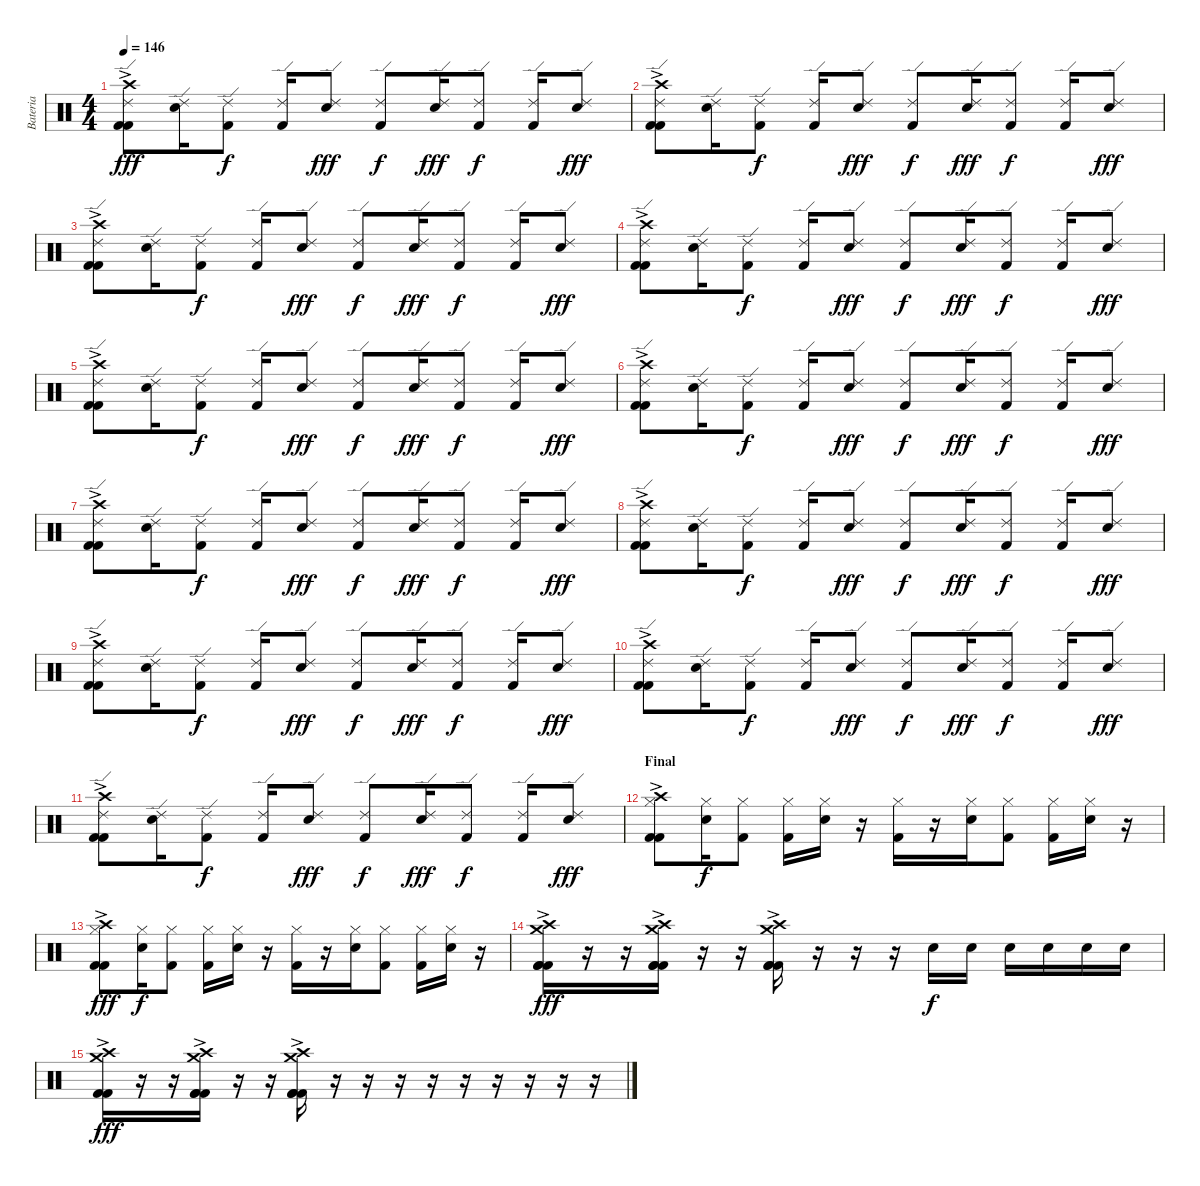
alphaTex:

\track ("Bateria" "Bateria") {instrument percussion}
\staff {score}
\articulation defaults
\ts (4 4)
\tempo 146
\clef neutral
\ks c
("Crash high (hit)"{ac} "Ride (edge) 2" "Kick (hit) 2" "Kick (hit) 2").8{dy fff} ("Ride (edge) 2" "Electric Snare (hit)").16 ("Ride (edge) 2" "Kick (hit) 2").8{dy f} ("Ride (edge) 2" "Kick (hit) 2").16 ("Ride (edge) 2" "Electric Snare (hit)").8{dy fff} ("Ride (edge) 2" "Kick (hit) 2").8{dy f} ("Ride (edge) 2" "Electric Snare (hit)").16{dy fff} ("Ride (edge) 2" "Kick (hit) 2").8{dy f} ("Ride (edge) 2" "Kick (hit) 2").16 ("Ride (edge) 2" "Electric Snare (hit)").8{dy fff} |
("Crash high (hit)"{ac} "Ride (edge) 2" "Kick (hit) 2" "Kick (hit) 2").8 ("Ride (edge) 2" "Electric Snare (hit)").16 ("Ride (edge) 2" "Kick (hit) 2").8{dy f} ("Ride (edge) 2" "Kick (hit) 2").16 ("Ride (edge) 2" "Electric Snare (hit)").8{dy fff} ("Ride (edge) 2" "Kick (hit) 2").8{dy f} ("Ride (edge) 2" "Electric Snare (hit)").16{dy fff} ("Ride (edge) 2" "Kick (hit) 2").8{dy f} ("Ride (edge) 2" "Kick (hit) 2").16 ("Ride (edge) 2" "Electric Snare (hit)").8{dy fff} |
("Crash high (hit)"{ac} "Ride (edge) 2" "Kick (hit) 2" "Kick (hit) 2").8 ("Ride (edge) 2" "Electric Snare (hit)").16 ("Ride (edge) 2" "Kick (hit) 2").8{dy f} ("Ride (edge) 2" "Kick (hit) 2").16 ("Ride (edge) 2" "Electric Snare (hit)").8{dy fff} ("Ride (edge) 2" "Kick (hit) 2").8{dy f} ("Ride (edge) 2" "Electric Snare (hit)").16{dy fff} ("Ride (edge) 2" "Kick (hit) 2").8{dy f} ("Ride (edge) 2" "Kick (hit) 2").16 ("Ride (edge) 2" "Electric Snare (hit)").8{dy fff} |
("Crash high (hit)"{ac} "Ride (edge) 2" "Kick (hit) 2" "Kick (hit) 2").8 ("Ride (edge) 2" "Electric Snare (hit)").16 ("Ride (edge) 2" "Kick (hit) 2").8{dy f} ("Ride (edge) 2" "Kick (hit) 2").16 ("Ride (edge) 2" "Electric Snare (hit)").8{dy fff} ("Ride (edge) 2" "Kick (hit) 2").8{dy f} ("Ride (edge) 2" "Electric Snare (hit)").16{dy fff} ("Ride (edge) 2" "Kick (hit) 2").8{dy f} ("Ride (edge) 2" "Kick (hit) 2").16 ("Ride (edge) 2" "Electric Snare (hit)").8{dy fff} |
("Crash high (hit)"{ac} "Ride (edge) 2" "Kick (hit) 2" "Kick (hit) 2").8 ("Ride (edge) 2" "Electric Snare (hit)").16 ("Ride (edge) 2" "Kick (hit) 2").8{dy f} ("Ride (edge) 2" "Kick (hit) 2").16 ("Ride (edge) 2" "Electric Snare (hit)").8{dy fff} ("Ride (edge) 2" "Kick (hit) 2").8{dy f} ("Ride (edge) 2" "Electric Snare (hit)").16{dy fff} ("Ride (edge) 2" "Kick (hit) 2").8{dy f} ("Ride (edge) 2" "Kick (hit) 2").16 ("Ride (edge) 2" "Electric Snare (hit)").8{dy fff} |
("Crash high (hit)"{ac} "Ride (edge) 2" "Kick (hit) 2" "Kick (hit) 2").8 ("Ride (edge) 2" "Electric Snare (hit)").16 ("Ride (edge) 2" "Kick (hit) 2").8{dy f} ("Ride (edge) 2" "Kick (hit) 2").16 ("Ride (edge) 2" "Electric Snare (hit)").8{dy fff} ("Ride (edge) 2" "Kick (hit) 2").8{dy f} ("Ride (edge) 2" "Electric Snare (hit)").16{dy fff} ("Ride (edge) 2" "Kick (hit) 2").8{dy f} ("Ride (edge) 2" "Kick (hit) 2").16 ("Ride (edge) 2" "Electric Snare (hit)").8{dy fff} |
("Crash high (hit)"{ac} "Ride (edge) 2" "Kick (hit) 2" "Kick (hit) 2").8 ("Ride (edge) 2" "Electric Snare (hit)").16 ("Ride (edge) 2" "Kick (hit) 2").8{dy f} ("Ride (edge) 2" "Kick (hit) 2").16 ("Ride (edge) 2" "Electric Snare (hit)").8{dy fff} ("Ride (edge) 2" "Kick (hit) 2").8{dy f} ("Ride (edge) 2" "Electric Snare (hit)").16{dy fff} ("Ride (edge) 2" "Kick (hit) 2").8{dy f} ("Ride (edge) 2" "Kick (hit) 2").16 ("Ride (edge) 2" "Electric Snare (hit)").8{dy fff} |
("Crash high (hit)"{ac} "Ride (edge) 2" "Kick (hit) 2" "Kick (hit) 2").8 ("Ride (edge) 2" "Electric Snare (hit)").16 ("Ride (edge) 2" "Kick (hit) 2").8{dy f} ("Ride (edge) 2" "Kick (hit) 2").16 ("Ride (edge) 2" "Electric Snare (hit)").8{dy fff} ("Ride (edge) 2" "Kick (hit) 2").8{dy f} ("Ride (edge) 2" "Electric Snare (hit)").16{dy fff} ("Ride (edge) 2" "Kick (hit) 2").8{dy f} ("Ride (edge) 2" "Kick (hit) 2").16 ("Ride (edge) 2" "Electric Snare (hit)").8{dy fff} |
("Crash high (hit)"{ac} "Ride (edge) 2" "Kick (hit) 2" "Kick (hit) 2").8 ("Ride (edge) 2" "Electric Snare (hit)").16 ("Ride (edge) 2" "Kick (hit) 2").8{dy f} ("Ride (edge) 2" "Kick (hit) 2").16 ("Ride (edge) 2" "Electric Snare (hit)").8{dy fff} ("Ride (edge) 2" "Kick (hit) 2").8{dy f} ("Ride (edge) 2" "Electric Snare (hit)").16{dy fff} ("Ride (edge) 2" "Kick (hit) 2").8{dy f} ("Ride (edge) 2" "Kick (hit) 2").16 ("Ride (edge) 2" "Electric Snare (hit)").8{dy fff} |
("Crash high (hit)"{ac} "Ride (edge) 2" "Kick (hit) 2" "Kick (hit) 2").8 ("Ride (edge) 2" "Electric Snare (hit)").16 ("Ride (edge) 2" "Kick (hit) 2").8{dy f} ("Ride (edge) 2" "Kick (hit) 2").16 ("Ride (edge) 2" "Electric Snare (hit)").8{dy fff} ("Ride (edge) 2" "Kick (hit) 2").8{dy f} ("Ride (edge) 2" "Electric Snare (hit)").16{dy fff} ("Ride (edge) 2" "Kick (hit) 2").8{dy f} ("Ride (edge) 2" "Kick (hit) 2").16 ("Ride (edge) 2" "Electric Snare (hit)").8{dy fff} |
("Crash high (hit)"{ac} "Ride (edge) 2" "Kick (hit) 2" "Kick (hit) 2").8 ("Ride (edge) 2" "Electric Snare (hit)").16 ("Ride (edge) 2" "Kick (hit) 2").8{dy f} ("Ride (edge) 2" "Kick (hit) 2").16 ("Ride (edge) 2" "Electric Snare (hit)").8{dy fff} ("Ride (edge) 2" "Kick (hit) 2").8{dy f} ("Ride (edge) 2" "Electric Snare (hit)").16{dy fff} ("Ride (edge) 2" "Kick (hit) 2").8{dy f} ("Ride (edge) 2" "Kick (hit) 2").16 ("Ride (edge) 2" "Electric Snare (hit)").8{dy fff} |
\section ("" "Final")
("Crash high (hit)"{ac} "Hi-Hat (closed)" "Kick (hit) 2" "Kick (hit) 2").8 ("Hi-Hat (closed)" "Electric Snare (hit)").16{dy f} ("Hi-Hat (closed)" "Kick (hit) 2").8 ("Hi-Hat (closed)" "Kick (hit) 2").16 ("Hi-Hat (closed)" "Electric Snare (hit)").16 r.16 ("Hi-Hat (closed)" "Kick (hit) 2").16 r.16 ("Hi-Hat (closed)" "Electric Snare (hit)").16 ("Hi-Hat (closed)" "Kick (hit) 2").8 ("Hi-Hat (closed)" "Kick (hit) 2").16 ("Hi-Hat (closed)" "Electric Snare (hit)").16 r.16 |
("Crash high (hit)"{ac} "Hi-Hat (closed)" "Kick (hit) 2" "Kick (hit) 2").8{dy fff} ("Hi-Hat (closed)" "Electric Snare (hit)").16{dy f} ("Hi-Hat (closed)" "Kick (hit) 2").8 ("Hi-Hat (closed)" "Kick (hit) 2").16 ("Hi-Hat (closed)" "Electric Snare (hit)").16 r.16 ("Hi-Hat (closed)" "Kick (hit) 2").16 r.16 ("Hi-Hat (closed)" "Electric Snare (hit)").16 ("Hi-Hat (closed)" "Kick (hit) 2").8 ("Hi-Hat (closed)" "Kick (hit) 2").16 ("Hi-Hat (closed)" "Electric Snare (hit)").16 r.16 |
("Crash high (hit)"{ac} "Crash medium (hit)" "Kick (hit) 2" "Kick (hit) 2" "Kick (hit) 2").16{dy fff} r.16 r.16 ("Crash medium (hit)"{ac} "Crash high (hit)" "Kick (hit) 2" "Kick (hit) 2" "Kick (hit) 2").16 r.16 r.16 ("Crash high (hit)"{ac} "Crash medium (hit)" "Kick (hit) 2" "Kick (hit) 2" "Kick (hit) 2").16 r.16 r.16 r.16 "Electric Snare (hit)".16{dy f} "Electric Snare (hit)".16 "Electric Snare (hit)".16 "Electric Snare (hit)".16 "Electric Snare (hit)".16 "Electric Snare (hit)".16 |
("Crash high (hit)"{ac} "Crash medium (hit)" "Kick (hit) 2" "Kick (hit) 2").16{dy fff} r.16 r.16 ("Crash medium (hit)"{ac} "Crash high (hit)" "Kick (hit) 2" "Kick (hit) 2" "Kick (hit) 2").16 r.16 r.16 ("Crash high (hit)"{ac} "Crash medium (hit)" "Kick (hit) 2" "Kick (hit) 2" "Kick (hit) 2").16 r.16 r.16 r.16 r.16 r.16 r.16 r.16 r.16 r.16
